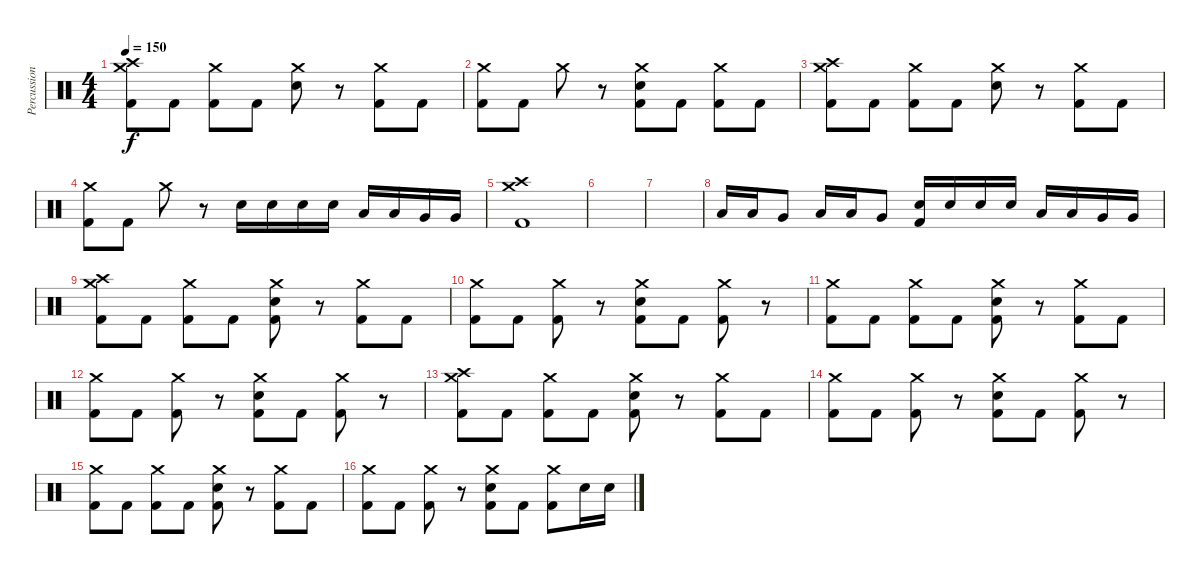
\track ("Percussion" "Percussion") {instrument percussion}
\staff {score}
\articulation defaults
\ts (4 4)
\tempo 150
\clef neutral
\ks c
("Crash medium (hit)" "Crash high (hit)" "Kick (hit) 2").8{dy f} "Kick (hit) 2".8 ("Crash medium (hit)" "Kick (hit) 2").8 "Kick (hit) 2".8 ("Crash medium (hit)" "Electric Snare (hit)").8 r.8 ("Crash medium (hit)" "Kick (hit) 2").8 "Kick (hit) 2".8 |
("Crash medium (hit)" "Kick (hit) 2").8 "Kick (hit) 2".8 "Crash medium (hit)".8 r.8 ("Crash medium (hit)" "Electric Snare (hit)" "Kick (hit) 2").8 "Kick (hit) 2".8 ("Crash medium (hit)" "Kick (hit) 2").8 "Kick (hit) 2".8 |
("Crash medium (hit)" "Crash high (hit)" "Kick (hit) 2").8 "Kick (hit) 2".8 ("Crash medium (hit)" "Kick (hit) 2").8 "Kick (hit) 2".8 ("Crash medium (hit)" "Electric Snare (hit)").8 r.8 ("Crash medium (hit)" "Kick (hit) 2").8 "Kick (hit) 2".8 |
("Crash medium (hit)" "Kick (hit) 2").8 "Kick (hit) 2".8 "Crash medium (hit)".8 r.8 "Electric Snare (hit)".16 "Electric Snare (hit)".16 "Electric Snare (hit)".16 "Electric Snare (hit)".16 "Low Tom (hit)".16 "Low Tom (hit)".16 "Very Low Tom (hit)".16 "Very Low Tom (hit)".16 |
("Crash medium (hit)" "Crash high (hit)" "Kick (hit) 2").1 |
|
|
"Low Tom (hit)".16 "Low Tom (hit)".16 "Very Low Tom (hit)".8 "Low Tom (hit)".16 "Low Tom (hit)".16 "Very Low Tom (hit)".8 ("Electric Snare (hit)" "Kick (hit) 2").16 "Electric Snare (hit)".16 "Electric Snare (hit)".16 "Electric Snare (hit)".16 "Low Tom (hit)".16 "Low Tom (hit)".16 "Very Low Tom (hit)".16 "Very Low Tom (hit)".16 |
("Crash medium (hit)" "Crash high (hit)" "Kick (hit) 2").8 "Kick (hit) 2".8 ("Crash medium (hit)" "Kick (hit) 2").8 "Kick (hit) 2".8 ("Crash medium (hit)" "Electric Snare (hit)" "Kick (hit) 2").8 r.8 ("Crash medium (hit)" "Kick (hit) 2").8 "Kick (hit) 2".8 |
("Crash medium (hit)" "Kick (hit) 2").8 "Kick (hit) 2".8 ("Crash medium (hit)" "Kick (hit) 2").8 r.8 ("Crash medium (hit)" "Electric Snare (hit)" "Kick (hit) 2").8 "Kick (hit) 2".8 ("Crash medium (hit)" "Kick (hit) 2").8 r.8 |
("Crash medium (hit)" "Kick (hit) 2").8 "Kick (hit) 2".8 ("Crash medium (hit)" "Kick (hit) 2").8 "Kick (hit) 2".8 ("Crash medium (hit)" "Electric Snare (hit)" "Kick (hit) 2").8 r.8 ("Crash medium (hit)" "Kick (hit) 2").8 "Kick (hit) 2".8 |
("Crash medium (hit)" "Kick (hit) 2").8 "Kick (hit) 2".8 ("Crash medium (hit)" "Kick (hit) 2").8 r.8 ("Crash medium (hit)" "Electric Snare (hit)" "Kick (hit) 2").8 "Kick (hit) 2".8 ("Crash medium (hit)" "Kick (hit) 2").8 r.8 |
("Crash medium (hit)" "Crash high (hit)" "Kick (hit) 2").8 "Kick (hit) 2".8 ("Crash medium (hit)" "Kick (hit) 2").8 "Kick (hit) 2".8 ("Crash medium (hit)" "Electric Snare (hit)" "Kick (hit) 2").8 r.8 ("Crash medium (hit)" "Kick (hit) 2").8 "Kick (hit) 2".8 |
("Crash medium (hit)" "Kick (hit) 2").8 "Kick (hit) 2".8 ("Crash medium (hit)" "Kick (hit) 2").8 r.8 ("Crash medium (hit)" "Electric Snare (hit)" "Kick (hit) 2").8 "Kick (hit) 2".8 ("Crash medium (hit)" "Kick (hit) 2").8 r.8 |
("Crash medium (hit)" "Kick (hit) 2").8 "Kick (hit) 2".8 ("Crash medium (hit)" "Kick (hit) 2").8 "Kick (hit) 2".8 ("Crash medium (hit)" "Electric Snare (hit)" "Kick (hit) 2").8 r.8 ("Crash medium (hit)" "Kick (hit) 2").8 "Kick (hit) 2".8 |
("Crash medium (hit)" "Kick (hit) 2").8 "Kick (hit) 2".8 ("Crash medium (hit)" "Kick (hit) 2").8 r.8 ("Crash medium (hit)" "Electric Snare (hit)" "Kick (hit) 2").8 "Kick (hit) 2".8 ("Crash medium (hit)" "Kick (hit) 2").8 "Electric Snare (hit)".16 "Electric Snare (hit)".16
